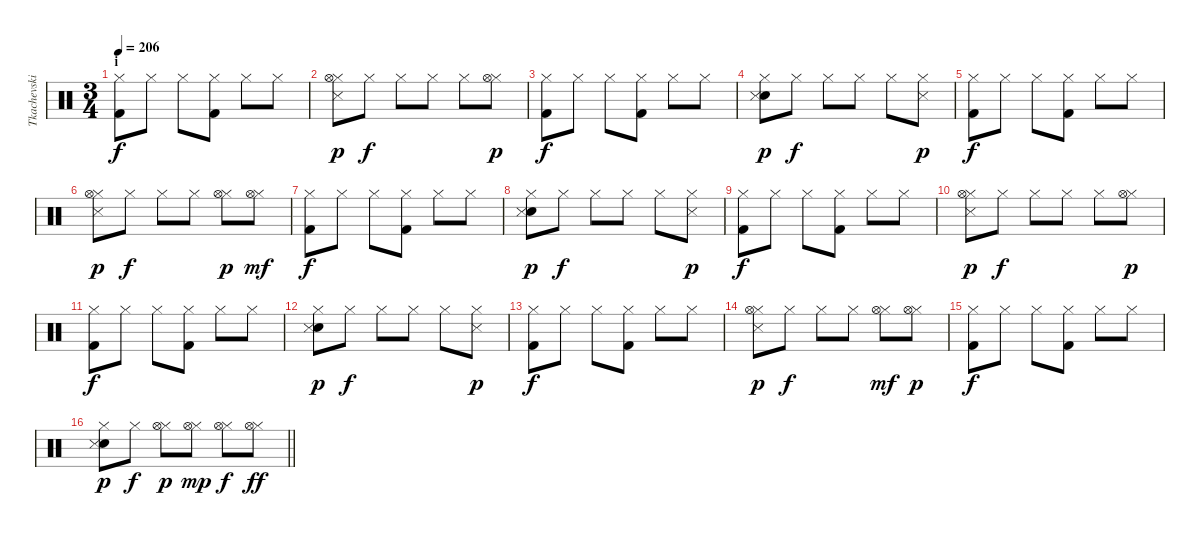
\track ("Tkachevskiy A" "Tkachevski") {instrument percussion}
\staff {score}
\articulation defaults
\ts (3 4)
\section ("" "i")
\tempo 206
\clef neutral
\ks c
("Hi-Hat (closed)" "Kick (hit) 2").8{dy f} "Hi-Hat (closed)".8 "Hi-Hat (closed)".8 ("Hi-Hat (closed)" "Kick (hit) 2").8 "Hi-Hat (closed)".8 "Hi-Hat (closed)".8 |
("Hi-Hat (closed)" "Hi-Hat (open)" "Snare (side stick) 3").8{dy p} "Hi-Hat (closed)".8{dy f} "Hi-Hat (closed)".8 "Hi-Hat (closed)".8 "Hi-Hat (closed)".8 ("Hi-Hat (closed)" "Hi-Hat (open)").8{dy p} |
("Hi-Hat (closed)" "Kick (hit) 2").8{dy f} "Hi-Hat (closed)".8 "Hi-Hat (closed)".8 ("Hi-Hat (closed)" "Kick (hit) 2").8 "Hi-Hat (closed)".8 "Hi-Hat (closed)".8 |
("Hi-Hat (closed)" "Snare (hit) 2" "Snare (side stick) 3").8{dy p} "Hi-Hat (closed)".8{dy f} "Hi-Hat (closed)".8 "Hi-Hat (closed)".8 "Hi-Hat (closed)".8 ("Hi-Hat (closed)" "Snare (side stick) 3").8{dy p} |
("Hi-Hat (closed)" "Kick (hit) 2").8{dy f} "Hi-Hat (closed)".8 "Hi-Hat (closed)".8 ("Hi-Hat (closed)" "Kick (hit) 2").8 "Hi-Hat (closed)".8 "Hi-Hat (closed)".8 |
("Hi-Hat (closed)" "Hi-Hat (open)" "Snare (side stick) 3").8{dy p} "Hi-Hat (closed)".8{dy f} "Hi-Hat (closed)".8 "Hi-Hat (closed)".8 ("Hi-Hat (closed)" "Hi-Hat (open)").8{dy p} ("Hi-Hat (closed)" "Hi-Hat (open)").8{dy mf} |
("Hi-Hat (closed)" "Kick (hit) 2").8{dy f} "Hi-Hat (closed)".8 "Hi-Hat (closed)".8 ("Hi-Hat (closed)" "Kick (hit) 2").8 "Hi-Hat (closed)".8 "Hi-Hat (closed)".8 |
("Hi-Hat (closed)" "Snare (hit) 2" "Snare (side stick) 3").8{dy p} "Hi-Hat (closed)".8{dy f} "Hi-Hat (closed)".8 "Hi-Hat (closed)".8 "Hi-Hat (closed)".8 ("Hi-Hat (closed)" "Snare (side stick) 3").8{dy p} |
("Hi-Hat (closed)" "Kick (hit) 2").8{dy f} "Hi-Hat (closed)".8 "Hi-Hat (closed)".8 ("Hi-Hat (closed)" "Kick (hit) 2").8 "Hi-Hat (closed)".8 "Hi-Hat (closed)".8 |
("Hi-Hat (closed)" "Hi-Hat (open)" "Snare (side stick) 3").8{dy p} "Hi-Hat (closed)".8{dy f} "Hi-Hat (closed)".8 "Hi-Hat (closed)".8 "Hi-Hat (closed)".8 ("Hi-Hat (closed)" "Hi-Hat (open)").8{dy p} |
("Hi-Hat (closed)" "Kick (hit) 2").8{dy f} "Hi-Hat (closed)".8 "Hi-Hat (closed)".8 ("Hi-Hat (closed)" "Kick (hit) 2").8 "Hi-Hat (closed)".8 "Hi-Hat (closed)".8 |
("Hi-Hat (closed)" "Snare (hit) 2" "Snare (side stick) 3").8{dy p} "Hi-Hat (closed)".8{dy f} "Hi-Hat (closed)".8 "Hi-Hat (closed)".8 "Hi-Hat (closed)".8 ("Hi-Hat (closed)" "Snare (side stick) 3").8{dy p} |
("Hi-Hat (closed)" "Kick (hit) 2").8{dy f} "Hi-Hat (closed)".8 "Hi-Hat (closed)".8 ("Hi-Hat (closed)" "Kick (hit) 2").8 "Hi-Hat (closed)".8 "Hi-Hat (closed)".8 |
("Hi-Hat (closed)" "Hi-Hat (open)" "Snare (side stick) 3").8{dy p} "Hi-Hat (closed)".8{dy f} "Hi-Hat (closed)".8 "Hi-Hat (closed)".8 ("Hi-Hat (closed)" "Hi-Hat (open)").8{dy mf} ("Hi-Hat (closed)" "Hi-Hat (open)").8{dy p} |
("Hi-Hat (closed)" "Kick (hit) 2").8{dy f} "Hi-Hat (closed)".8 "Hi-Hat (closed)".8 ("Hi-Hat (closed)" "Kick (hit) 2").8 "Hi-Hat (closed)".8 "Hi-Hat (closed)".8 |
\barLineRight lightlight
("Hi-Hat (closed)" "Snare (hit) 2" "Snare (side stick) 3").8{dy p} "Hi-Hat (closed)".8{dy f} ("Hi-Hat (closed)" "Hi-Hat (open)").8{dy p} ("Hi-Hat (closed)" "Hi-Hat (open)").8{dy mp} ("Hi-Hat (closed)" "Hi-Hat (open)").8{dy f} ("Hi-Hat (closed)" "Hi-Hat (open)").8{dy ff}
